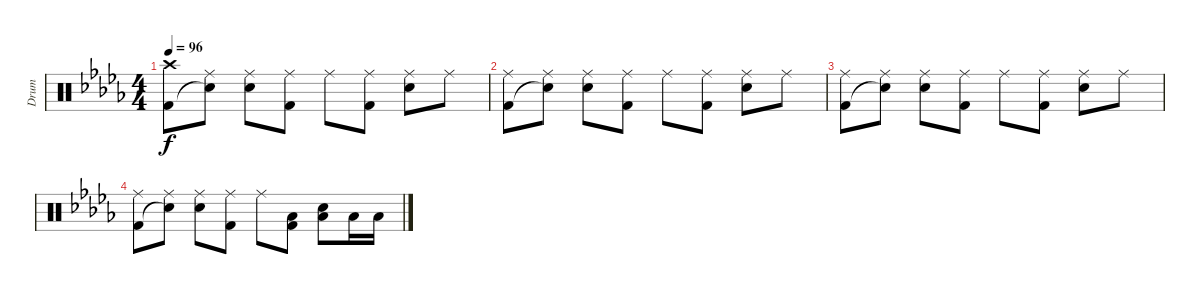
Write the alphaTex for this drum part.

\track ("Drum" "Drum") {instrument percussion}
\staff {score}
\articulation defaults
\ts (4 4)
\tempo 96
\clef neutral
\ks db
("Crash high (hit)" "Kick (hit) 2").8{dy f} ("Ride (middle)" "Snare (hit)"{t}).8 ("Ride (middle)" "Snare (hit) 2").8 ("Ride (middle)" "Kick (hit) 2").8 "Ride (middle)".8 ("Ride (middle)" "Kick (hit) 2").8 ("Ride (middle)" "Snare (hit) 2").8 "Ride (middle)".8 |
("Ride (middle)" "Kick (hit) 2").8 ("Ride (middle)" "Snare (hit)"{t}).8 ("Ride (middle)" "Snare (hit) 2").8 ("Ride (middle)" "Kick (hit) 2").8 "Ride (middle)".8 ("Ride (middle)" "Kick (hit) 2").8 ("Ride (middle)" "Snare (hit) 2").8 "Ride (middle)".8 |
("Ride (middle)" "Kick (hit) 2").8 ("Ride (middle)" "Snare (hit)"{t}).8 ("Ride (middle)" "Snare (hit) 2").8 ("Ride (middle)" "Kick (hit) 2").8 "Ride (middle)".8 ("Ride (middle)" "Kick (hit) 2").8 ("Ride (middle)" "Snare (hit) 2").8 "Ride (middle)".8 |
("Ride (middle)" "Kick (hit) 2").8 ("Ride (middle)" "Snare (hit)"{t}).8 ("Ride (middle)" "Snare (hit) 2").8 ("Ride (middle)" "Kick (hit) 2").8 "Ride (middle)".8 ("Low Tom (hit)" "Kick (hit) 2").8 ("Snare (hit) 2" "Low Tom (hit)").8 "Low Tom (hit)".16 "Low Tom (hit)".16
